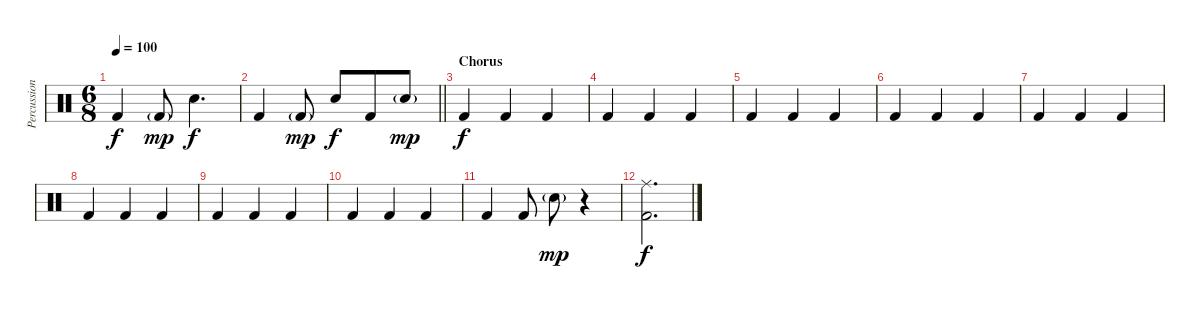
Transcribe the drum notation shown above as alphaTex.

\track ("Percussion" "Percussion") {instrument percussion}
\staff {score}
\articulation defaults
\ts (6 8)
\tempo 100
\clef neutral
\ks c "Kick (hit) 2".4{dy f} "Kick (hit) 2"{g}.8{dy mp} "Snare (hit) 2".4{d dy f}
|
\barLineRight lightlight "Kick (hit) 2".4 "Kick (hit) 2"{g}.8{dy mp} "Snare (hit) 2".8{dy f} "Kick (hit) 2".8 "Snare (hit) 2"{g}.8{dy mp}
|
\section ("" "Chorus")
"Kick (hit) 2".4{dy f} "Kick (hit) 2".4 "Kick (hit) 2".4 |
"Kick (hit) 2".4 "Kick (hit) 2".4 "Kick (hit) 2".4 |
"Kick (hit) 2".4 "Kick (hit) 2".4 "Kick (hit) 2".4 |
"Kick (hit) 2".4 "Kick (hit) 2".4 "Kick (hit) 2".4 |
"Kick (hit) 2".4 "Kick (hit) 2".4 "Kick (hit) 2".4 |
"Kick (hit) 2".4 "Kick (hit) 2".4 "Kick (hit) 2".4 |
"Kick (hit) 2".4 "Kick (hit) 2".4 "Kick (hit) 2".4 |
"Kick (hit) 2".4 "Kick (hit) 2".4 "Kick (hit) 2".4 |
"Kick (hit) 2".4 "Kick (hit) 2".8 "Snare (hit) 2"{g}.8{dy mp} r.4 |
("Ride (middle)" "Kick (hit) 2").2{d dy f}
